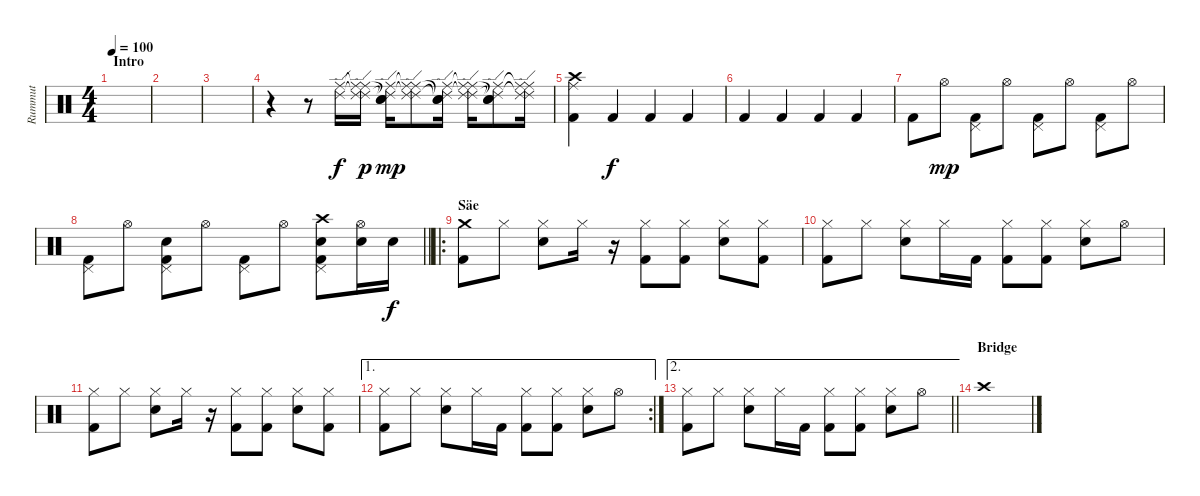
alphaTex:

\track ("Rummut" "Rummut") {instrument percussion}
\staff {score}
\articulation defaults
\ts (4 4)
\section ("" "Intro")
\tempo 100
\clef neutral
\ks c
|
|
|
r.4 r.8 ("Ride (middle)" "Ride (edge) 2").16 ("Ride (middle)"{t} "Ride (edge) 2"{t} "Ride (middle)" "Ride (edge) 2").16{dy p} ("Ride (middle)" "Ride (edge) 2" "Snare (hit)"{t} "Snare (hit)"{t}).16{dy mp} ("Ride (middle)"{t} "Ride (edge) 2"{t} "Ride (middle)" "Ride (edge) 2").8 ("Ride (middle)" "Ride (edge) 2" "Snare (hit)"{t} "Snare (hit)"{t}).16 ("Ride (middle)"{t} "Ride (edge) 2"{t} "Ride (middle)" "Ride (edge) 2").16 ("Ride (middle)" "Ride (edge) 2" "Snare (hit)"{t} "Snare (hit)"{t}).8 ("Ride (middle)"{t} "Ride (edge) 2"{t} "Ride (middle)" "Ride (edge) 2").16 |
("Crash high (hit)" "Ride (middle)" "Kick (hit) 2").4 "Kick (hit) 2".4{dy f} "Kick (hit) 2".4 "Kick (hit) 2".4 |
"Kick (hit) 2".4 "Kick (hit) 2".4 "Kick (hit) 2".4 "Kick (hit) 2".4 |
"Kick (hit) 2".8 "Hi-Hat (open)".8{dy mp} ("Pedal Hi-Hat (hit)" "Kick (hit) 2").8 "Hi-Hat (open)".8 ("Pedal Hi-Hat (hit)" "Kick (hit) 2").8 "Hi-Hat (open)".8 ("Pedal Hi-Hat (hit)" "Kick (hit) 2").8 "Hi-Hat (open)".8 |
\barLineRight lightlight
("Pedal Hi-Hat (hit)" "Kick (hit) 2").8 "Hi-Hat (open)".8 ("Snare (hit) 2" "Pedal Hi-Hat (hit)" "Kick (hit) 2").8 "Hi-Hat (open)".8 ("Pedal Hi-Hat (hit)" "Kick (hit) 2").8 "Hi-Hat (open)".8 ("Crash high (hit)" "Snare (hit) 2" "Pedal Hi-Hat (hit)" "Kick (hit) 2").8 ("Snare (hit) 2" "Hi-Hat (open)").16 "Snare (hit) 2".16{dy f} |
\ro
\section ("" "Säe")
("Crash medium (hit)" "Kick (hit) 2").8 "Hi-Hat (closed)".8 ("Hi-Hat (closed)" "Snare (hit) 2").8 "Hi-Hat (closed)".16 r.16 ("Hi-Hat (closed)" "Kick (hit) 2").8 ("Hi-Hat (closed)" "Kick (hit) 2").8 ("Hi-Hat (closed)" "Snare (hit) 2").8 ("Hi-Hat (closed)" "Kick (hit) 2").8 |
("Hi-Hat (closed)" "Kick (hit) 2").8 "Hi-Hat (closed)".8 ("Hi-Hat (closed)" "Snare (hit) 2").8 "Hi-Hat (closed)".16 "Kick (hit) 2".16 ("Hi-Hat (closed)" "Kick (hit) 2").8 ("Hi-Hat (closed)" "Kick (hit) 2").8 ("Hi-Hat (closed)" "Snare (hit) 2").8 "Hi-Hat (open)".8 |
("Hi-Hat (closed)" "Kick (hit) 2").8 "Hi-Hat (closed)".8 ("Hi-Hat (closed)" "Snare (hit) 2").8 "Hi-Hat (closed)".16 r.16 ("Hi-Hat (closed)" "Kick (hit) 2").8 ("Hi-Hat (closed)" "Kick (hit) 2").8 ("Hi-Hat (closed)" "Snare (hit) 2").8 ("Hi-Hat (closed)" "Kick (hit) 2").8 |
\ae 1
\rc 2
("Hi-Hat (closed)" "Kick (hit) 2").8 "Hi-Hat (closed)".8 ("Hi-Hat (closed)" "Snare (hit) 2").8 "Hi-Hat (closed)".16 "Kick (hit) 2".16 ("Hi-Hat (closed)" "Kick (hit) 2").8 ("Hi-Hat (closed)" "Kick (hit) 2").8 ("Hi-Hat (closed)" "Snare (hit) 2").8 "Hi-Hat (open)".8 |
\ae 2
\barLineRight lightlight
("Hi-Hat (closed)" "Kick (hit) 2").8 "Hi-Hat (closed)".8 ("Hi-Hat (closed)" "Snare (hit) 2").8 "Hi-Hat (closed)".16 "Kick (hit) 2".16 ("Hi-Hat (closed)" "Kick (hit) 2").8 ("Hi-Hat (closed)" "Kick (hit) 2").8 ("Hi-Hat (closed)" "Snare (hit) 2").8 "Hi-Hat (open)".8 |
\section ("" "Bridge")
"Crash high (hit)".1
